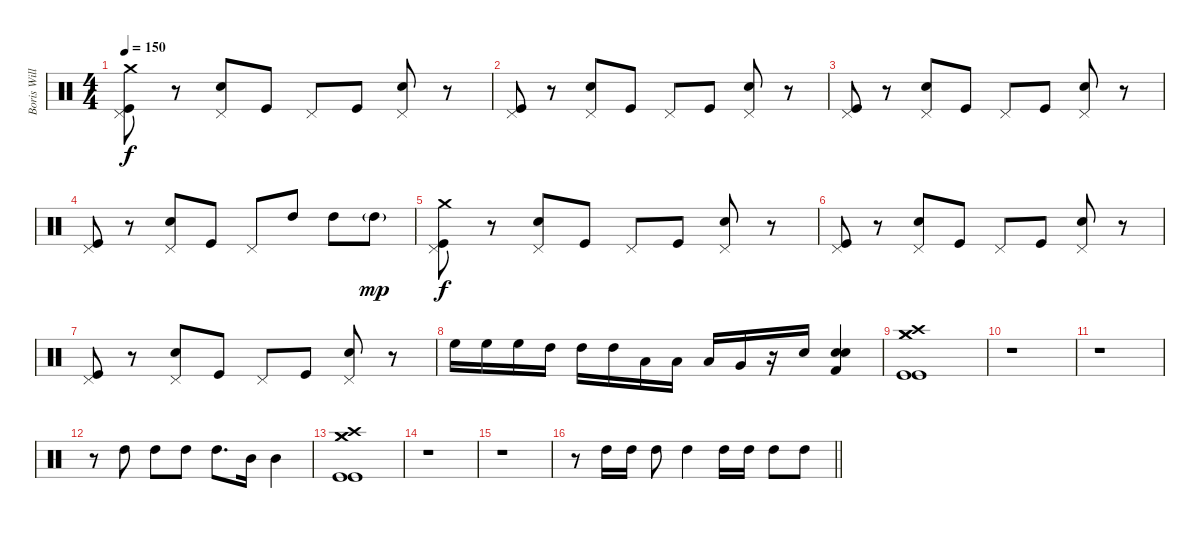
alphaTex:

\track ("Boris Williams" "Boris Will") {instrument percussion}
\staff {score}
\articulation defaults
\ts (4 4)
\tempo 150
\clef neutral
\ks c
("Pedal Hi-Hat (hit)" "Kick (hit)" "Crash medium (hit)").8{dy f} r.8 ("Pedal Hi-Hat (hit)" "Snare (hit) 2").8 "Kick (hit)".8 "Pedal Hi-Hat (hit)".8 "Kick (hit)".8 ("Pedal Hi-Hat (hit)" "Snare (hit) 2").8 r.8 |
("Pedal Hi-Hat (hit)" "Kick (hit)").8 r.8 ("Pedal Hi-Hat (hit)" "Snare (hit) 2").8 "Kick (hit)".8 "Pedal Hi-Hat (hit)".8 "Kick (hit)".8 ("Pedal Hi-Hat (hit)" "Snare (hit) 2").8 r.8 |
("Pedal Hi-Hat (hit)" "Kick (hit)").8 r.8 ("Pedal Hi-Hat (hit)" "Snare (hit) 2").8 "Kick (hit)".8 "Pedal Hi-Hat (hit)".8 "Kick (hit)".8 ("Pedal Hi-Hat (hit)" "Snare (hit) 2").8 r.8 |
("Pedal Hi-Hat (hit)" "Kick (hit)").8 r.8 ("Pedal Hi-Hat (hit)" "Snare (hit) 2").8 "Kick (hit)".8 "Pedal Hi-Hat (hit)".8 "High Tom (hit)".8 "High Tom (hit)".8 "High Tom (hit)"{g}.8{dy mp} |
("Pedal Hi-Hat (hit)" "Kick (hit)" "Crash medium (hit)").8{dy f} r.8 ("Pedal Hi-Hat (hit)" "Snare (hit) 2").8 "Kick (hit)".8 "Pedal Hi-Hat (hit)".8 "Kick (hit)".8 ("Pedal Hi-Hat (hit)" "Snare (hit) 2").8 r.8 |
("Pedal Hi-Hat (hit)" "Kick (hit)").8 r.8 ("Pedal Hi-Hat (hit)" "Snare (hit) 2").8 "Kick (hit)".8 "Pedal Hi-Hat (hit)".8 "Kick (hit)".8 ("Pedal Hi-Hat (hit)" "Snare (hit) 2").8 r.8 |
("Pedal Hi-Hat (hit)" "Kick (hit)").8 r.8 ("Pedal Hi-Hat (hit)" "Snare (hit) 2").8 "Kick (hit)".8 "Pedal Hi-Hat (hit)".8 "Kick (hit)".8 ("Pedal Hi-Hat (hit)" "Snare (hit) 2").8 r.8 |
"High Floor Tom (hit)".16 "High Floor Tom (hit)".16 "High Floor Tom (hit)".16 "High Tom (hit)".16 "High Tom (hit)".16 "High Tom (hit)".16 "Low Tom (hit)".16 "Low Tom (hit)".16 "Low Tom (hit)".16 "Very Low Tom (hit)".16 r.16 "Snare (hit) 2".16 ("Kick (hit) 2" "Snare (hit) 2" "Snare (hit) 2").4 |
("Crash high (hit)" "Kick (hit)" "Kick (hit)" "Crash medium (hit)" "Crash medium (hit)").1 |
r.1 |
r.1 |
r.8 "High Tom (hit)".8 "High Tom (hit)".8 "High Tom (hit)".8 "High Tom (hit)".8{d} "Mid Tom (hit)".16 "Mid Tom (hit)".4 |
("Crash high (hit)" "Kick (hit)" "Kick (hit)" "Crash medium (hit)" "Crash medium (hit)").1 |
r.1 |
r.1 |
\barLineRight lightlight
r.8 "High Tom (hit)".16 "High Tom (hit)".16 "High Tom (hit)".8 "High Tom (hit)".4 "High Tom (hit)".16 "High Tom (hit)".16 "High Tom (hit)".8 "High Tom (hit)".8
